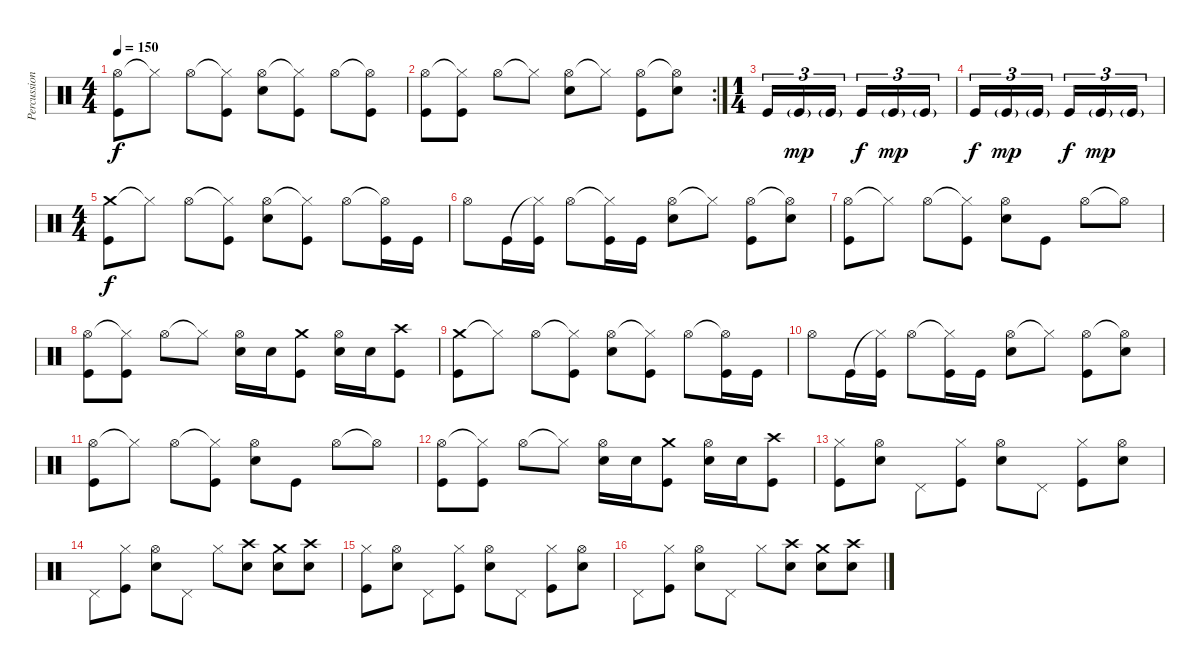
\track ("Percussion" "Percussion") {instrument percussion}
\staff {score}
\articulation defaults
\ts (4 4)
\tempo 150
\clef neutral
\ks c
("Hi-Hat (open)" "Kick (hit)").8{dy f} "Hi-Hat (closed)"{t}.8 "Hi-Hat (open)".8 ("Hi-Hat (closed)"{t} "Kick (hit)").8 ("Hi-Hat (open)" "Snare (hit) 2").8 ("Hi-Hat (closed)"{t} "Kick (hit)").8 "Hi-Hat (open)".8 ("Hi-Hat (open)"{t} "Kick (hit)").8 |
\rc 2
("Hi-Hat (open)" "Kick (hit)").8 ("Hi-Hat (closed)"{t} "Kick (hit)").8 "Hi-Hat (open)".8 "Hi-Hat (closed)"{t}.8 ("Hi-Hat (open)" "Snare (hit) 2").8 "Hi-Hat (closed)"{t}.8 ("Hi-Hat (open)" "Kick (hit)").8 ("Hi-Hat (open)"{t} "Snare (hit) 2").8 |
\ts (1 4)
"Kick (hit)".16{tu (3 2)} "Kick (hit)"{g}.16{tu (3 2) dy mp} "Kick (hit)"{g}.16{tu (3 2)} "Kick (hit)".16{tu (3 2) dy f} "Kick (hit)"{g}.16{tu (3 2) dy mp} "Kick (hit)"{g}.16{tu (3 2)} |
"Kick (hit)".16{tu (3 2) dy f} "Kick (hit)"{g}.16{tu (3 2) dy mp} "Kick (hit)"{g}.16{tu (3 2)} "Kick (hit)".16{tu (3 2) dy f} "Kick (hit)"{g}.16{tu (3 2) dy mp} "Kick (hit)"{g}.16{tu (3 2)} |
\ts (4 4)
("Crash medium (hit)" "Kick (hit)").8{dy f} "Hi-Hat (closed)"{t}.8 "Hi-Hat (open)".8 ("Hi-Hat (closed)"{t} "Kick (hit)").8 ("Hi-Hat (open)" "Snare (hit) 2").8 ("Hi-Hat (closed)"{t} "Kick (hit)").8 "Hi-Hat (open)".8 ("Hi-Hat (open)"{t} "Kick (hit)").16 "Kick (hit)".16 |
"Hi-Hat (open)".8 "Kick (hit)".16 ("Hi-Hat (closed)"{t} "Kick (hit)").16 "Hi-Hat (open)".8 ("Hi-Hat (closed)"{t} "Kick (hit)").16 "Kick (hit)".16 ("Hi-Hat (open)" "Snare (hit) 2").8 "Hi-Hat (closed)"{t}.8 ("Hi-Hat (open)" "Kick (hit)").8 ("Hi-Hat (open)"{t} "Snare (hit) 2").8 |
("Hi-Hat (open)" "Kick (hit)").8 "Hi-Hat (closed)"{t}.8 "Hi-Hat (open)".8 ("Hi-Hat (closed)"{t} "Kick (hit)").8 ("Hi-Hat (open)" "Snare (hit) 2").8 "Kick (hit)".8 "Hi-Hat (open)".8 "Hi-Hat (open)"{t}.8 |
("Hi-Hat (open)" "Kick (hit)").8 ("Hi-Hat (closed)"{t} "Kick (hit)").8 "Hi-Hat (open)".8 "Hi-Hat (closed)"{t}.8 ("Hi-Hat (open)" "Snare (hit) 2").16 "Snare (hit) 2".16 ("Crash medium (hit)" "Kick (hit)").8 ("Hi-Hat (open)" "Snare (hit) 2").16 "Snare (hit) 2".16 ("Crash high (hit)" "Kick (hit)").8 |
("Crash medium (hit)" "Kick (hit)").8 "Hi-Hat (closed)"{t}.8 "Hi-Hat (open)".8 ("Hi-Hat (closed)"{t} "Kick (hit)").8 ("Hi-Hat (open)" "Snare (hit) 2").8 ("Hi-Hat (closed)"{t} "Kick (hit)").8 "Hi-Hat (open)".8 ("Hi-Hat (open)"{t} "Kick (hit)").16 "Kick (hit)".16 |
"Hi-Hat (open)".8 "Kick (hit)".16 ("Hi-Hat (closed)"{t} "Kick (hit)").16 "Hi-Hat (open)".8 ("Hi-Hat (closed)"{t} "Kick (hit)").16 "Kick (hit)".16 ("Hi-Hat (open)" "Snare (hit) 2").8 "Hi-Hat (closed)"{t}.8 ("Hi-Hat (open)" "Kick (hit)").8 ("Hi-Hat (open)"{t} "Snare (hit) 2").8 |
("Hi-Hat (open)" "Kick (hit)").8 "Hi-Hat (closed)"{t}.8 "Hi-Hat (open)".8 ("Hi-Hat (closed)"{t} "Kick (hit)").8 ("Hi-Hat (open)" "Snare (hit) 2").8 "Kick (hit)".8 "Hi-Hat (open)".8 "Hi-Hat (open)"{t}.8 |
("Hi-Hat (open)" "Kick (hit)").8 ("Hi-Hat (closed)"{t} "Kick (hit)").8 "Hi-Hat (open)".8 "Hi-Hat (closed)"{t}.8 ("Hi-Hat (open)" "Snare (hit) 2").16 "Snare (hit) 2".16 ("Crash medium (hit)" "Kick (hit)").8 ("Hi-Hat (open)" "Snare (hit) 2").16 "Snare (hit) 2".16 ("Crash high (hit)" "Kick (hit)").8 |
("Hi-Hat (closed)" "Kick (hit)").8 ("Hi-Hat (open)" "Snare (hit) 2").8 "Pedal Hi-Hat (hit)".8 ("Hi-Hat (closed)" "Kick (hit)").8 ("Hi-Hat (open)" "Snare (hit) 2").8 "Pedal Hi-Hat (hit)".8 ("Hi-Hat (closed)" "Kick (hit)").8 ("Hi-Hat (open)" "Snare (hit) 2").8 |
"Pedal Hi-Hat (hit)".8 ("Hi-Hat (closed)" "Kick (hit)").8 ("Hi-Hat (open)" "Snare (hit) 2").8 "Pedal Hi-Hat (hit)".8 "Hi-Hat (closed)".8 ("Crash high (hit)" "Snare (hit) 2").8 ("Crash medium (hit)" "Snare (hit) 2").8 ("Crash high (hit)" "Snare (hit) 2").8 |
("Hi-Hat (closed)" "Kick (hit)").8 ("Hi-Hat (open)" "Snare (hit) 2").8 "Pedal Hi-Hat (hit)".8 ("Hi-Hat (closed)" "Kick (hit)").8 ("Hi-Hat (open)" "Snare (hit) 2").8 "Pedal Hi-Hat (hit)".8 ("Hi-Hat (closed)" "Kick (hit)").8 ("Hi-Hat (open)" "Snare (hit) 2").8 |
"Pedal Hi-Hat (hit)".8 ("Hi-Hat (closed)" "Kick (hit)").8 ("Hi-Hat (open)" "Snare (hit) 2").8 "Pedal Hi-Hat (hit)".8 "Hi-Hat (closed)".8 ("Crash high (hit)" "Snare (hit) 2").8 ("Crash medium (hit)" "Snare (hit) 2").8 ("Crash high (hit)" "Snare (hit) 2").8
